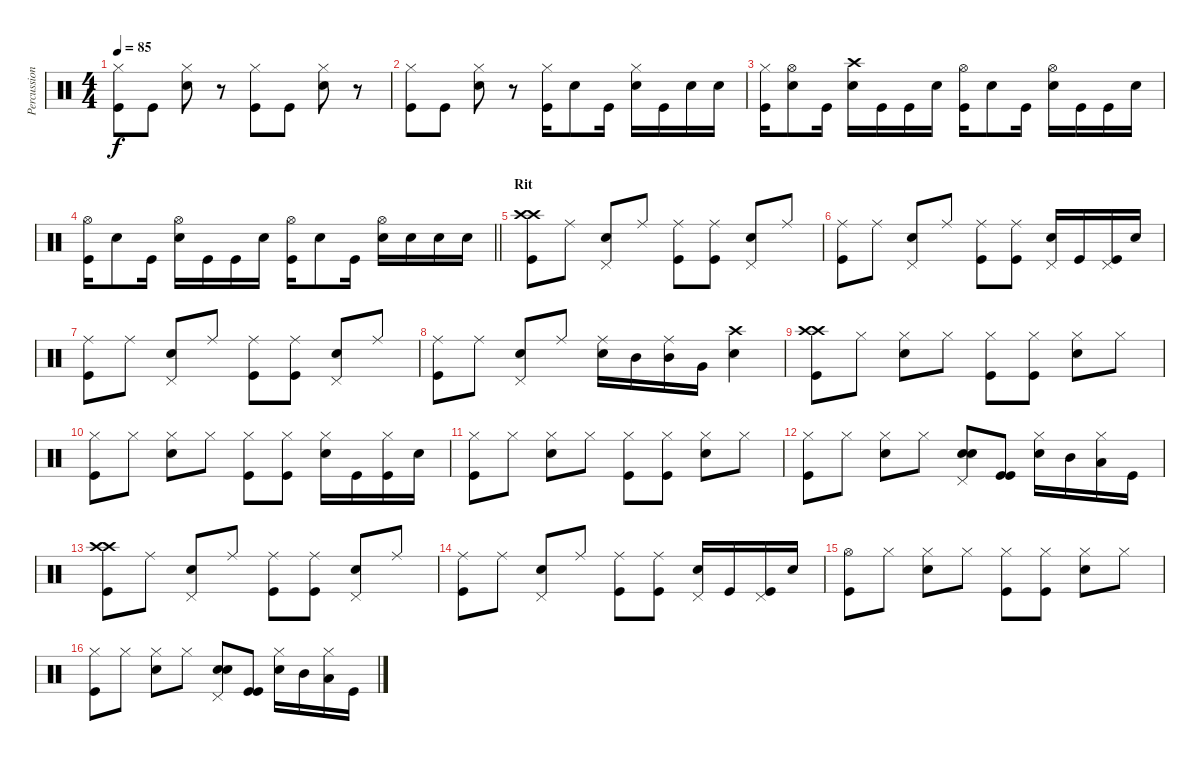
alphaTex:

\track ("Percussioni" "Percussion") {instrument percussion}
\staff {score}
\articulation defaults
\ts (4 4)
\tempo 85
\clef neutral
\ks c
("Hi-Hat (closed)" "Kick (hit)").8{dy f} "Kick (hit)".8 ("Hi-Hat (closed)" "Snare (hit) 2").8 r.8 ("Hi-Hat (closed)" "Kick (hit)").8 "Kick (hit)".8 ("Hi-Hat (closed)" "Snare (hit) 2").8 r.8 |
("Hi-Hat (closed)" "Kick (hit)").8 "Kick (hit)".8 ("Hi-Hat (closed)" "Snare (hit) 2").8 r.8 ("Hi-Hat (closed)" "Kick (hit)").16 "Snare (hit) 2".8 "Kick (hit)".16 ("Hi-Hat (closed)" "Snare (hit) 2").16 "Kick (hit)".16 "Snare (hit) 2".16 "Snare (hit) 2".16 |
("Hi-Hat (closed)" "Kick (hit)").16 ("Hi-Hat (open)" "Snare (hit) 2").8 "Kick (hit)".16 ("Crash high (hit)" "Snare (hit) 2").16 "Kick (hit)".16 "Kick (hit)".16 "Snare (hit) 2".16 ("Hi-Hat (open)" "Kick (hit)").16 "Snare (hit) 2".8 "Kick (hit)".16 ("Hi-Hat (open)" "Snare (hit) 2").16 "Kick (hit)".16 "Kick (hit)".16 "Snare (hit) 2".16 |
\barLineRight lightlight
("Hi-Hat (open)" "Kick (hit)").16 "Snare (hit) 2".8 "Kick (hit)".16 ("Hi-Hat (open)" "Snare (hit) 2").16 "Kick (hit)".16 "Kick (hit)".16 "Snare (hit) 2".16 ("Hi-Hat (open)" "Kick (hit)").16 "Snare (hit) 2".8 "Kick (hit)".16 ("Hi-Hat (open)" "Snare (hit) 2").16 "Snare (hit) 2".16 "Snare (hit) 2".16 "Snare (hit) 2".16 |
\section ("" "Rit")
("Crash high (hit)" "Crash high (hit)" "Kick (hit)").8 "Ride (middle)".8 ("Pedal Hi-Hat (hit)" "Snare (hit) 2").8 "Ride (middle)".8 ("Ride (middle)" "Kick (hit)").8 ("Ride (middle)" "Kick (hit)").8 ("Pedal Hi-Hat (hit)" "Snare (hit) 2").8 "Ride (middle)".8 |
("Ride (middle)" "Kick (hit)").8 "Ride (middle)".8 ("Pedal Hi-Hat (hit)" "Snare (hit) 2").8 "Ride (middle)".8 ("Ride (middle)" "Kick (hit)").8 ("Ride (middle)" "Kick (hit)").8 ("Pedal Hi-Hat (hit)" "Snare (hit) 2").16 "Kick (hit)".16 ("Pedal Hi-Hat (hit)" "Kick (hit)").16 "Snare (hit) 2".16 |
("Ride (middle)" "Kick (hit)").8 "Ride (middle)".8 ("Pedal Hi-Hat (hit)" "Snare (hit) 2").8 "Ride (middle)".8 ("Ride (middle)" "Kick (hit)").8 ("Ride (middle)" "Kick (hit)").8 ("Pedal Hi-Hat (hit)" "Snare (hit) 2").8 "Ride (middle)".8 |
("Ride (middle)" "Kick (hit)").8 "Ride (middle)".8 ("Pedal Hi-Hat (hit)" "Snare (hit) 2").8 "Ride (middle)".8 ("Ride (middle)" "Snare (hit) 2").16 "Mid Tom (hit)".16 ("Ride (middle)" "Mid Tom (hit)").16 "Very Low Tom (hit)".16 ("Crash high (hit)" "Snare (hit) 2").4 |
("Crash high (hit)" "Crash high (hit)" "Kick (hit)").8 "Hi-Hat (closed)".8 ("Hi-Hat (closed)" "Snare (hit) 2").8 "Hi-Hat (closed)".8 ("Hi-Hat (closed)" "Kick (hit)").8 ("Hi-Hat (closed)" "Kick (hit)").8 ("Hi-Hat (closed)" "Snare (hit) 2").8 "Hi-Hat (closed)".8 |
("Hi-Hat (closed)" "Kick (hit)").8 "Hi-Hat (closed)".8 ("Hi-Hat (closed)" "Snare (hit) 2").8 "Hi-Hat (closed)".8 ("Hi-Hat (closed)" "Kick (hit)").8 ("Hi-Hat (closed)" "Kick (hit)").8 ("Hi-Hat (closed)" "Snare (hit) 2").16 "Kick (hit)".16 ("Hi-Hat (closed)" "Kick (hit)").16 "Snare (hit) 2".16 |
("Hi-Hat (closed)" "Kick (hit)").8 "Hi-Hat (closed)".8 ("Hi-Hat (closed)" "Snare (hit) 2").8 "Hi-Hat (closed)".8 ("Hi-Hat (closed)" "Kick (hit)").8 ("Hi-Hat (closed)" "Kick (hit)").8 ("Hi-Hat (closed)" "Snare (hit) 2").8 "Hi-Hat (closed)".8 |
("Hi-Hat (closed)" "Kick (hit)").8 "Hi-Hat (closed)".8 ("Hi-Hat (closed)" "Snare (hit) 2").8 "Hi-Hat (closed)".8 ("Pedal Hi-Hat (hit)" "Snare (hit) 2" "Snare (hit) 2").8 ("Kick (hit)" "Kick (hit)").8 ("Hi-Hat (closed)" "Snare (hit) 2").16 "Mid Tom (hit)".16 ("Hi-Hat (closed)" "Low Tom (hit)").16 "Kick (hit)".16 |
("Crash high (hit)" "Crash high (hit)" "Kick (hit)").8 "Ride (middle)".8 ("Pedal Hi-Hat (hit)" "Snare (hit) 2").8 "Ride (middle)".8 ("Ride (middle)" "Kick (hit)").8 ("Ride (middle)" "Kick (hit)").8 ("Pedal Hi-Hat (hit)" "Snare (hit) 2").8 "Ride (middle)".8 |
("Ride (middle)" "Kick (hit)").8 "Ride (middle)".8 ("Pedal Hi-Hat (hit)" "Snare (hit) 2").8 "Ride (middle)".8 ("Ride (middle)" "Kick (hit)").8 ("Ride (middle)" "Kick (hit)").8 ("Pedal Hi-Hat (hit)" "Snare (hit) 2").16 "Kick (hit)".16 ("Pedal Hi-Hat (hit)" "Kick (hit)").16 "Snare (hit) 2".16 |
("Hi-Hat (open)" "Kick (hit)").8 "Hi-Hat (closed)".8 ("Hi-Hat (closed)" "Snare (hit) 2").8 "Hi-Hat (closed)".8 ("Hi-Hat (closed)" "Kick (hit)").8 ("Hi-Hat (closed)" "Kick (hit)").8 ("Hi-Hat (closed)" "Snare (hit) 2").8 "Hi-Hat (closed)".8 |
("Hi-Hat (closed)" "Kick (hit)").8 "Hi-Hat (closed)".8 ("Hi-Hat (closed)" "Snare (hit) 2").8 "Hi-Hat (closed)".8 ("Pedal Hi-Hat (hit)" "Snare (hit) 2" "Snare (hit) 2").8 ("Kick (hit)" "Kick (hit)").8 ("Hi-Hat (closed)" "Snare (hit) 2").16 "Mid Tom (hit)".16 ("Hi-Hat (closed)" "Low Tom (hit)").16 "Kick (hit)".16
